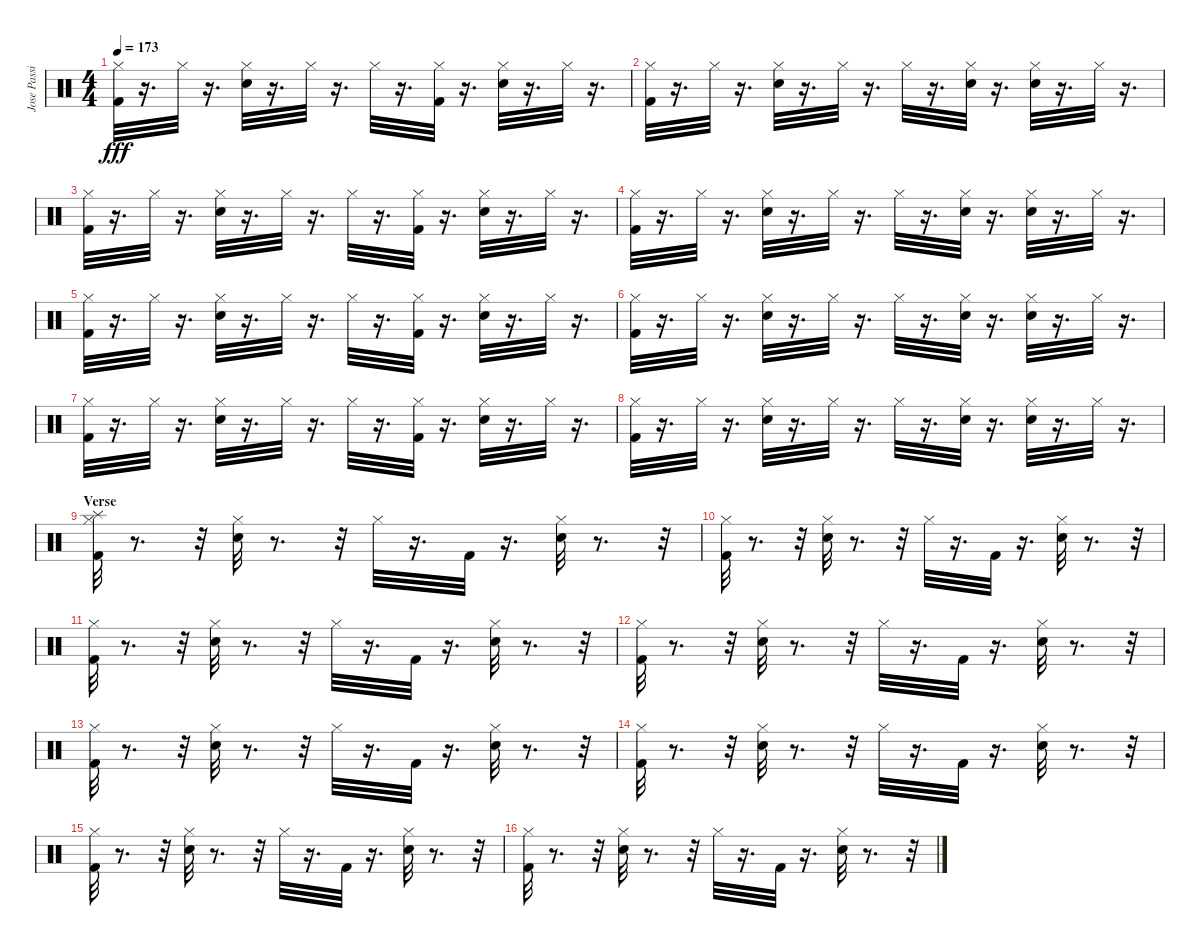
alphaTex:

\track ("Jose Passilas-Drums" "Jose Passi") {instrument percussion}
\staff {score}
\articulation defaults
\ts (4 4)
\tempo 173
\clef neutral
\ks c
("Hi-Hat (closed)" "Kick (hit) 2").32{dy fff} r.16{d} "Hi-Hat (closed)".32 r.16{d} ("Hi-Hat (closed)" "Electric Snare (hit)").32 r.16{d} "Hi-Hat (closed)".32 r.16{d} "Hi-Hat (closed)".32 r.16{d} ("Hi-Hat (closed)" "Kick (hit) 2").32 r.16{d} ("Hi-Hat (closed)" "Electric Snare (hit)").32 r.16{d} "Hi-Hat (closed)".32 r.16{d} |
("Hi-Hat (closed)" "Kick (hit) 2").32 r.16{d} "Hi-Hat (closed)".32 r.16{d} ("Hi-Hat (closed)" "Electric Snare (hit)").32 r.16{d} "Hi-Hat (closed)".32 r.16{d} "Hi-Hat (closed)".32 r.16{d} ("Hi-Hat (closed)" "Electric Snare (hit)").32 r.16{d} ("Hi-Hat (closed)" "Electric Snare (hit)").32 r.16{d} "Hi-Hat (closed)".32 r.16{d} |
("Hi-Hat (closed)" "Kick (hit) 2").32 r.16{d} "Hi-Hat (closed)".32 r.16{d} ("Electric Snare (hit)" "Hi-Hat (closed)").32 r.16{d} "Hi-Hat (closed)".32 r.16{d} "Hi-Hat (closed)".32 r.16{d} ("Kick (hit) 2" "Hi-Hat (closed)").32 r.16{d} ("Electric Snare (hit)" "Hi-Hat (closed)").32 r.16{d} "Hi-Hat (closed)".32 r.16{d} |
("Kick (hit) 2" "Hi-Hat (closed)").32 r.16{d} "Hi-Hat (closed)".32 r.16{d} ("Electric Snare (hit)" "Hi-Hat (closed)").32 r.16{d} "Hi-Hat (closed)".32 r.16{d} "Hi-Hat (closed)".32 r.16{d} ("Electric Snare (hit)" "Hi-Hat (closed)").32 r.16{d} ("Electric Snare (hit)" "Hi-Hat (closed)").32 r.16{d} "Hi-Hat (closed)".32 r.16{d} |
("Kick (hit) 2" "Hi-Hat (closed)").32 r.16{d} "Hi-Hat (closed)".32 r.16{d} ("Electric Snare (hit)" "Hi-Hat (closed)").32 r.16{d} "Hi-Hat (closed)".32 r.16{d} "Hi-Hat (closed)".32 r.16{d} ("Kick (hit) 2" "Hi-Hat (closed)").32 r.16{d} ("Electric Snare (hit)" "Hi-Hat (closed)").32 r.16{d} "Hi-Hat (closed)".32 r.16{d} |
("Kick (hit) 2" "Hi-Hat (closed)").32 r.16{d} "Hi-Hat (closed)".32 r.16{d} ("Electric Snare (hit)" "Hi-Hat (closed)").32 r.16{d} "Hi-Hat (closed)".32 r.16{d} "Hi-Hat (closed)".32 r.16{d} ("Electric Snare (hit)" "Hi-Hat (closed)").32 r.16{d} ("Electric Snare (hit)" "Hi-Hat (closed)").32 r.16{d} "Hi-Hat (closed)".32 r.16{d} |
("Kick (hit) 2" "Hi-Hat (closed)").32 r.16{d} "Hi-Hat (closed)".32 r.16{d} ("Hi-Hat (closed)" "Electric Snare (hit)").32 r.16{d} "Hi-Hat (closed)".32 r.16{d} "Hi-Hat (closed)".32 r.16{d} ("Hi-Hat (closed)" "Kick (hit) 2").32 r.16{d} ("Hi-Hat (closed)" "Electric Snare (hit)").32 r.16{d} "Hi-Hat (closed)".32 r.16{d} |
("Hi-Hat (closed)" "Kick (hit) 2").32 r.16{d} "Hi-Hat (closed)".32 r.16{d} ("Hi-Hat (closed)" "Electric Snare (hit)").32 r.16{d} "Hi-Hat (closed)".32 r.16{d} "Hi-Hat (closed)".32 r.16{d} ("Hi-Hat (closed)" "Electric Snare (hit)").32 r.16{d} ("Hi-Hat (closed)" "Electric Snare (hit)").32 r.16{d} "Hi-Hat (closed)".32 r.16{d} |
\section ("" "Verse")
("Splash (hit)" "Hi-Hat (closed)" "Kick (hit) 2").32 r.8{d} r.32 ("Electric Snare (hit)" "Hi-Hat (closed)").32 r.8{d} r.32 "Hi-Hat (closed)".32 r.16{d} "Kick (hit) 2".32 r.16{d} ("Electric Snare (hit)" "Hi-Hat (closed)").32 r.8{d} r.32 |
("Kick (hit) 2" "Hi-Hat (closed)").32 r.8{d} r.32 ("Electric Snare (hit)" "Hi-Hat (closed)").32 r.8{d} r.32 "Hi-Hat (closed)".32 r.16{d} "Kick (hit) 2".32 r.16{d} ("Electric Snare (hit)" "Hi-Hat (closed)").32 r.8{d} r.32 |
("Kick (hit) 2" "Hi-Hat (closed)").32 r.8{d} r.32 ("Hi-Hat (closed)" "Electric Snare (hit)").32 r.8{d} r.32 "Hi-Hat (closed)".32 r.16{d} "Kick (hit) 2".32 r.16{d} ("Hi-Hat (closed)" "Electric Snare (hit)").32 r.8{d} r.32 |
("Hi-Hat (closed)" "Kick (hit) 2").32 r.8{d} r.32 ("Hi-Hat (closed)" "Electric Snare (hit)").32 r.8{d} r.32 "Hi-Hat (closed)".32 r.16{d} "Kick (hit) 2".32 r.16{d} ("Hi-Hat (closed)" "Electric Snare (hit)").32 r.8{d} r.32 |
("Kick (hit) 2" "Hi-Hat (closed)").32 r.8{d} r.32 ("Hi-Hat (closed)" "Electric Snare (hit)").32 r.8{d} r.32 "Hi-Hat (closed)".32 r.16{d} "Kick (hit) 2".32 r.16{d} ("Hi-Hat (closed)" "Electric Snare (hit)").32 r.8{d} r.32 |
("Hi-Hat (closed)" "Kick (hit) 2").32 r.8{d} r.32 ("Hi-Hat (closed)" "Electric Snare (hit)").32 r.8{d} r.32 "Hi-Hat (closed)".32 r.16{d} "Kick (hit) 2".32 r.16{d} ("Hi-Hat (closed)" "Electric Snare (hit)").32 r.8{d} r.32 |
("Kick (hit) 2" "Hi-Hat (closed)").32 r.8{d} r.32 ("Hi-Hat (closed)" "Electric Snare (hit)").32 r.8{d} r.32 "Hi-Hat (closed)".32 r.16{d} "Kick (hit) 2".32 r.16{d} ("Hi-Hat (closed)" "Electric Snare (hit)").32 r.8{d} r.32 |
("Hi-Hat (closed)" "Kick (hit) 2").32 r.8{d} r.32 ("Hi-Hat (closed)" "Electric Snare (hit)").32 r.8{d} r.32 "Hi-Hat (closed)".32 r.16{d} "Kick (hit) 2".32 r.16{d} ("Hi-Hat (closed)" "Electric Snare (hit)").32 r.8{d} r.32
